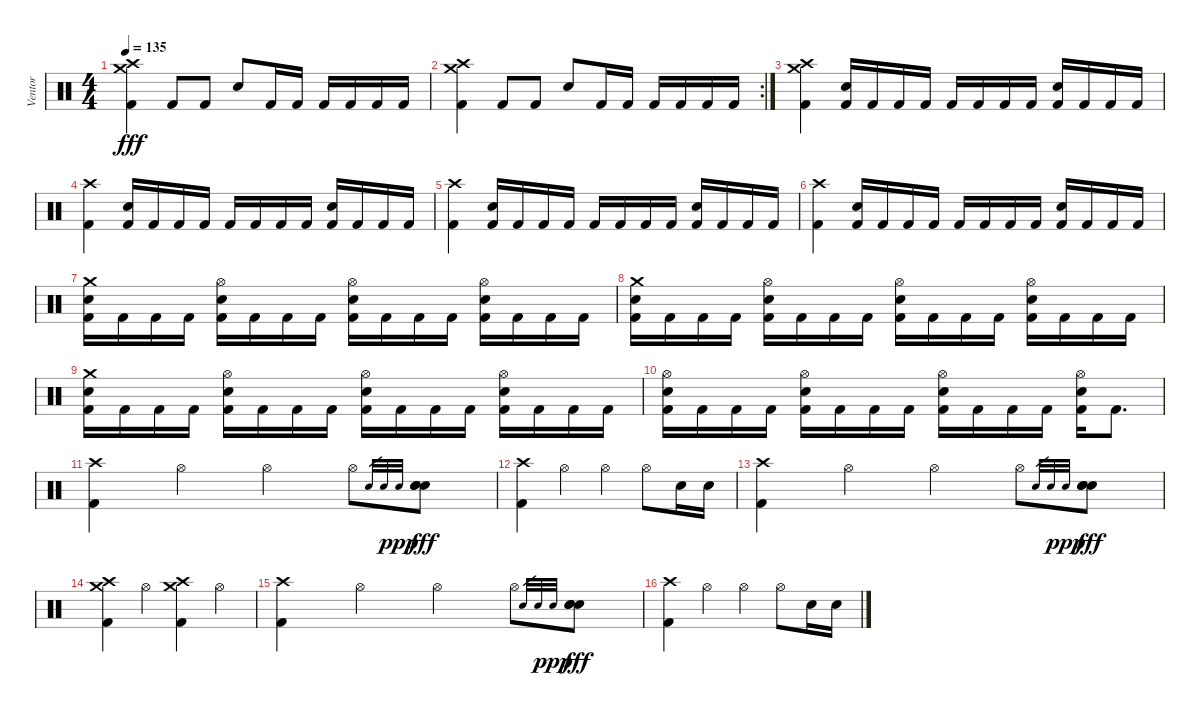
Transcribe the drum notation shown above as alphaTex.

\track ("Ventor" "Ventor") {instrument percussion}
\staff {score}
\articulation defaults
\ts (4 4)
\tempo 135
\clef neutral
\ks c
("Crash medium (hit)" "Crash high (hit)" "Kick (hit) 2").4{dy fff} "Kick (hit) 2".8 "Kick (hit) 2".8 "Electric Snare (hit)".8 "Kick (hit) 2".16 "Kick (hit) 2".16 "Kick (hit) 2".16 "Kick (hit) 2".16 "Kick (hit) 2".16 "Kick (hit) 2".16 |
\rc 2
("Crash medium (hit)" "Crash high (hit)" "Kick (hit) 2").4 "Kick (hit) 2".8 "Kick (hit) 2".8 "Electric Snare (hit)".8 "Kick (hit) 2".16 "Kick (hit) 2".16 "Kick (hit) 2".16 "Kick (hit) 2".16 "Kick (hit) 2".16 "Kick (hit) 2".16 |
("Crash medium (hit)" "Crash high (hit)" "Kick (hit) 2").4 ("Electric Snare (hit)" "Kick (hit) 2").16 "Kick (hit) 2".16 "Kick (hit) 2".16 "Kick (hit) 2".16 "Kick (hit) 2".16 "Kick (hit) 2".16 "Kick (hit) 2".16 "Kick (hit) 2".16 ("Electric Snare (hit)" "Kick (hit) 2").16 "Kick (hit) 2".16 "Kick (hit) 2".16 "Kick (hit) 2".16 |
("Crash high (hit)" "Kick (hit) 2").4 ("Electric Snare (hit)" "Kick (hit) 2").16 "Kick (hit) 2".16 "Kick (hit) 2".16 "Kick (hit) 2".16 "Kick (hit) 2".16 "Kick (hit) 2".16 "Kick (hit) 2".16 "Kick (hit) 2".16 ("Electric Snare (hit)" "Kick (hit) 2").16 "Kick (hit) 2".16 "Kick (hit) 2".16 "Kick (hit) 2".16 |
("Crash high (hit)" "Kick (hit) 2").4 ("Electric Snare (hit)" "Kick (hit) 2").16 "Kick (hit) 2".16 "Kick (hit) 2".16 "Kick (hit) 2".16 "Kick (hit) 2".16 "Kick (hit) 2".16 "Kick (hit) 2".16 "Kick (hit) 2".16 ("Electric Snare (hit)" "Kick (hit) 2").16 "Kick (hit) 2".16 "Kick (hit) 2".16 "Kick (hit) 2".16 |
("Crash high (hit)" "Kick (hit) 2").4 ("Electric Snare (hit)" "Kick (hit) 2").16 "Kick (hit) 2".16 "Kick (hit) 2".16 "Kick (hit) 2".16 "Kick (hit) 2".16 "Kick (hit) 2".16 "Kick (hit) 2".16 "Kick (hit) 2".16 ("Electric Snare (hit)" "Kick (hit) 2").16 "Kick (hit) 2".16 "Kick (hit) 2".16 "Kick (hit) 2".16 |
("Crash medium (hit)" "Electric Snare (hit)" "Kick (hit) 2").16 "Kick (hit) 2".16 "Kick (hit) 2".16 "Kick (hit) 2".16 ("Hi-Hat (open)" "Electric Snare (hit)" "Kick (hit) 2").16 "Kick (hit) 2".16 "Kick (hit) 2".16 "Kick (hit) 2".16 ("Hi-Hat (open)" "Electric Snare (hit)" "Kick (hit) 2").16 "Kick (hit) 2".16 "Kick (hit) 2".16 "Kick (hit) 2".16 ("Hi-Hat (open)" "Electric Snare (hit)" "Kick (hit) 2").16 "Kick (hit) 2".16 "Kick (hit) 2".16 "Kick (hit) 2".16 |
("Crash medium (hit)" "Electric Snare (hit)" "Kick (hit) 2").16 "Kick (hit) 2".16 "Kick (hit) 2".16 "Kick (hit) 2".16 ("Hi-Hat (open)" "Electric Snare (hit)" "Kick (hit) 2").16 "Kick (hit) 2".16 "Kick (hit) 2".16 "Kick (hit) 2".16 ("Hi-Hat (open)" "Electric Snare (hit)" "Kick (hit) 2").16 "Kick (hit) 2".16 "Kick (hit) 2".16 "Kick (hit) 2".16 ("Hi-Hat (open)" "Electric Snare (hit)" "Kick (hit) 2").16 "Kick (hit) 2".16 "Kick (hit) 2".16 "Kick (hit) 2".16 |
("Crash medium (hit)" "Electric Snare (hit)" "Kick (hit) 2").16 "Kick (hit) 2".16 "Kick (hit) 2".16 "Kick (hit) 2".16 ("Hi-Hat (open)" "Electric Snare (hit)" "Kick (hit) 2").16 "Kick (hit) 2".16 "Kick (hit) 2".16 "Kick (hit) 2".16 ("Hi-Hat (open)" "Electric Snare (hit)" "Kick (hit) 2").16 "Kick (hit) 2".16 "Kick (hit) 2".16 "Kick (hit) 2".16 ("Hi-Hat (open)" "Electric Snare (hit)" "Kick (hit) 2").16 "Kick (hit) 2".16 "Kick (hit) 2".16 "Kick (hit) 2".16 |
("Hi-Hat (open)" "Electric Snare (hit)" "Kick (hit) 2").16 "Kick (hit) 2".16 "Kick (hit) 2".16 "Kick (hit) 2".16 ("Hi-Hat (open)" "Electric Snare (hit)" "Kick (hit) 2").16 "Kick (hit) 2".16 "Kick (hit) 2".16 "Kick (hit) 2".16 ("Hi-Hat (open)" "Electric Snare (hit)" "Kick (hit) 2").16 "Kick (hit) 2".16 "Kick (hit) 2".16 "Kick (hit) 2".16 ("Hi-Hat (open)" "Electric Snare (hit)" "Kick (hit) 2").16 "Kick (hit) 2".8{d} |
("Crash high (hit)" "Kick (hit) 2").4 "Hi-Hat (open)".4 "Hi-Hat (open)".4 "Hi-Hat (open)".8 "Electric Snare (hit)".32{gr} "Electric Snare (hit)".32{gr} "Electric Snare (hit)".32{gr dy ppp} ("Electric Snare (hit)" "Electric Snare (hit)" "Electric Snare (hit)").8{dy fff} |
("Crash high (hit)" "Kick (hit) 2").4 "Hi-Hat (open)".4 "Hi-Hat (open)".4 "Hi-Hat (open)".8 "Electric Snare (hit)".16 "Electric Snare (hit)".16 |
("Crash high (hit)" "Kick (hit) 2").4 "Hi-Hat (open)".4 "Hi-Hat (open)".4 "Hi-Hat (open)".8 "Electric Snare (hit)".32{gr} "Electric Snare (hit)".32{gr} "Electric Snare (hit)".32{gr dy ppp} ("Electric Snare (hit)" "Electric Snare (hit)" "Electric Snare (hit)").8{dy fff} |
("Crash medium (hit)" "Crash high (hit)" "Kick (hit) 2").4 "Hi-Hat (open)".4 ("Crash medium (hit)" "Crash high (hit)" "Kick (hit) 2").4 "Hi-Hat (open)".4 |
("Crash high (hit)" "Kick (hit) 2").4 "Hi-Hat (open)".4 "Hi-Hat (open)".4 "Hi-Hat (open)".8 "Electric Snare (hit)".32{gr} "Electric Snare (hit)".32{gr} "Electric Snare (hit)".32{gr dy ppp} ("Electric Snare (hit)" "Electric Snare (hit)" "Electric Snare (hit)").8{dy fff} |
("Crash high (hit)" "Kick (hit) 2").4 "Hi-Hat (open)".4 "Hi-Hat (open)".4 "Hi-Hat (open)".8 "Electric Snare (hit)".16 "Electric Snare (hit)".16
